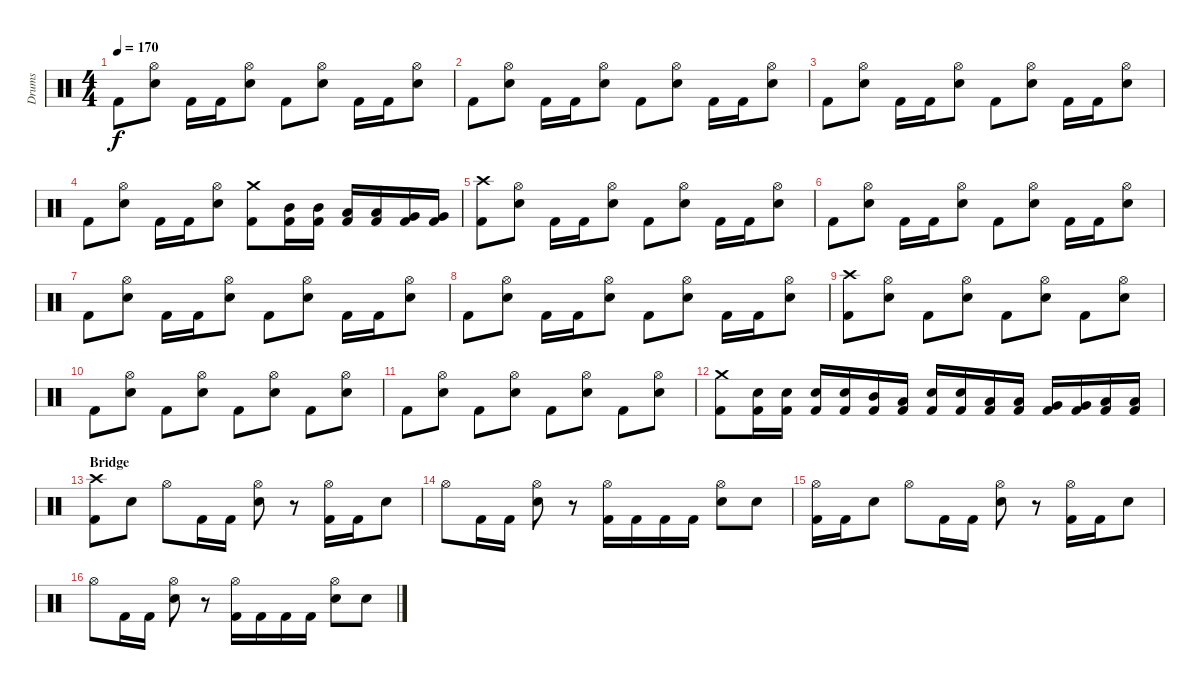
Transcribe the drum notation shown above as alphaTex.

\track ("Drums" "Drums") {instrument percussion}
\staff {score}
\articulation defaults
\ts (4 4)
\tempo 170
\clef neutral
\ks c "Kick (hit) 2".8{dy f}
("Hi-Hat (open)" "Snare (hit) 2").8 "Kick (hit) 2".16 "Kick (hit) 2".16 ("Hi-Hat (open)" "Snare (hit) 2").8 "Kick (hit) 2".8 ("Hi-Hat (open)" "Snare (hit) 2").8 "Kick (hit) 2".16 "Kick (hit) 2".16 ("Hi-Hat (open)" "Snare (hit) 2").8 |
"Kick (hit) 2".8 ("Hi-Hat (open)" "Snare (hit) 2").8 "Kick (hit) 2".16 "Kick (hit) 2".16 ("Hi-Hat (open)" "Snare (hit) 2").8 "Kick (hit) 2".8 ("Hi-Hat (open)" "Snare (hit) 2").8 "Kick (hit) 2".16 "Kick (hit) 2".16 ("Hi-Hat (open)" "Snare (hit) 2").8 |
"Kick (hit) 2".8 ("Hi-Hat (open)" "Snare (hit) 2").8 "Kick (hit) 2".16 "Kick (hit) 2".16 ("Hi-Hat (open)" "Snare (hit) 2").8 "Kick (hit) 2".8 ("Hi-Hat (open)" "Snare (hit) 2").8 "Kick (hit) 2".16 "Kick (hit) 2".16 ("Hi-Hat (open)" "Snare (hit) 2").8 |
"Kick (hit) 2".8 ("Hi-Hat (open)" "Snare (hit) 2").8 "Kick (hit) 2".16 "Kick (hit) 2".16 ("Hi-Hat (open)" "Snare (hit) 2").8 ("Crash medium (hit)" "Kick (hit) 2").8 ("Mid Tom (hit)" "Kick (hit) 2").16 ("Mid Tom (hit)" "Kick (hit) 2").16 ("Low Tom (hit)" "Kick (hit) 2").16 ("Low Tom (hit)" "Kick (hit) 2").16 ("Very Low Tom (hit)" "Kick (hit) 2").16 ("Very Low Tom (hit)" "Kick (hit) 2").16 |
\section ("" "")
("Crash high (hit)" "Kick (hit) 2").8 ("Hi-Hat (open)" "Snare (hit) 2").8 "Kick (hit) 2".16 "Kick (hit) 2".16 ("Hi-Hat (open)" "Snare (hit) 2").8 "Kick (hit) 2".8 ("Hi-Hat (open)" "Snare (hit) 2").8 "Kick (hit) 2".16 "Kick (hit) 2".16 ("Hi-Hat (open)" "Snare (hit) 2").8 |
"Kick (hit) 2".8 ("Hi-Hat (open)" "Snare (hit) 2").8 "Kick (hit) 2".16 "Kick (hit) 2".16 ("Hi-Hat (open)" "Snare (hit) 2").8 "Kick (hit) 2".8 ("Hi-Hat (open)" "Snare (hit) 2").8 "Kick (hit) 2".16 "Kick (hit) 2".16 ("Hi-Hat (open)" "Snare (hit) 2").8 |
"Kick (hit) 2".8 ("Hi-Hat (open)" "Snare (hit) 2").8 "Kick (hit) 2".16 "Kick (hit) 2".16 ("Hi-Hat (open)" "Snare (hit) 2").8 "Kick (hit) 2".8 ("Hi-Hat (open)" "Snare (hit) 2").8 "Kick (hit) 2".16 "Kick (hit) 2".16 ("Hi-Hat (open)" "Snare (hit) 2").8 |
"Kick (hit) 2".8 ("Hi-Hat (open)" "Snare (hit) 2").8 "Kick (hit) 2".16 "Kick (hit) 2".16 ("Hi-Hat (open)" "Snare (hit) 2").8 "Kick (hit) 2".8 ("Hi-Hat (open)" "Snare (hit) 2").8 "Kick (hit) 2".16 "Kick (hit) 2".16 ("Hi-Hat (open)" "Snare (hit) 2").8 |
("Crash high (hit)" "Kick (hit) 2").8 ("Hi-Hat (open)" "Snare (hit) 2").8 "Kick (hit) 2".8 ("Hi-Hat (open)" "Snare (hit) 2").8 "Kick (hit) 2".8 ("Hi-Hat (open)" "Snare (hit) 2").8 "Kick (hit) 2".8 ("Hi-Hat (open)" "Snare (hit) 2").8 |
"Kick (hit) 2".8 ("Hi-Hat (open)" "Snare (hit) 2").8 "Kick (hit) 2".8 ("Hi-Hat (open)" "Snare (hit) 2").8 "Kick (hit) 2".8 ("Hi-Hat (open)" "Snare (hit) 2").8 "Kick (hit) 2".8 ("Hi-Hat (open)" "Snare (hit) 2").8 |
"Kick (hit) 2".8 ("Hi-Hat (open)" "Snare (hit) 2").8 "Kick (hit) 2".8 ("Hi-Hat (open)" "Snare (hit) 2").8 "Kick (hit) 2".8 ("Hi-Hat (open)" "Snare (hit) 2").8 "Kick (hit) 2".8 ("Hi-Hat (open)" "Snare (hit) 2").8 |
("Crash medium (hit)" "Kick (hit) 2").8 ("Snare (hit) 2" "Kick (hit) 2").16 ("Snare (hit) 2" "Kick (hit) 2").16 ("Snare (hit) 2" "Kick (hit) 2").16 ("Snare (hit) 2" "Kick (hit) 2").16 ("Mid Tom (hit)" "Kick (hit) 2").16 ("Low Tom (hit)" "Kick (hit) 2").16 ("Snare (hit) 2" "Kick (hit) 2").16 ("Snare (hit) 2" "Kick (hit) 2").16 ("Low Tom (hit)" "Kick (hit) 2").16 ("Low Tom (hit)" "Kick (hit) 2").16 ("Very Low Tom (hit)" "Kick (hit) 2").16 ("Very Low Tom (hit)" "Kick (hit) 2").16 ("Low Floor Tom (hit)" "Kick (hit) 2").16 ("Low Floor Tom (hit)" "Kick (hit) 2").16 |
\section ("" "Bridge")
("Crash high (hit)" "Kick (hit) 2").8 "Snare (hit) 2".8 "Hi-Hat (open)".8 "Kick (hit) 2".16 "Kick (hit) 2".16 ("Hi-Hat (open)" "Snare (hit) 2").8 r.8 ("Hi-Hat (open)" "Kick (hit) 2").16 "Kick (hit) 2".16 "Snare (hit) 2".8 |
"Hi-Hat (open)".8 "Kick (hit) 2".16 "Kick (hit) 2".16 ("Hi-Hat (open)" "Snare (hit) 2").8 r.8 ("Hi-Hat (open)" "Kick (hit) 2").16 "Kick (hit) 2".16 "Kick (hit) 2".16 "Kick (hit) 2".16 ("Hi-Hat (open)" "Snare (hit) 2").8 "Snare (hit) 2".8 |
("Hi-Hat (open)" "Kick (hit) 2").16 "Kick (hit) 2".16 "Snare (hit) 2".8 "Hi-Hat (open)".8 "Kick (hit) 2".16 "Kick (hit) 2".16 ("Hi-Hat (open)" "Snare (hit) 2").8 r.8 ("Hi-Hat (open)" "Kick (hit) 2").16 "Kick (hit) 2".16 "Snare (hit) 2".8 |
"Hi-Hat (open)".8 "Kick (hit) 2".16 "Kick (hit) 2".16 ("Hi-Hat (open)" "Snare (hit) 2").8 r.8 ("Hi-Hat (open)" "Kick (hit) 2").16 "Kick (hit) 2".16 "Kick (hit) 2".16 "Kick (hit) 2".16 ("Hi-Hat (open)" "Snare (hit) 2").8 "Snare (hit) 2".8
